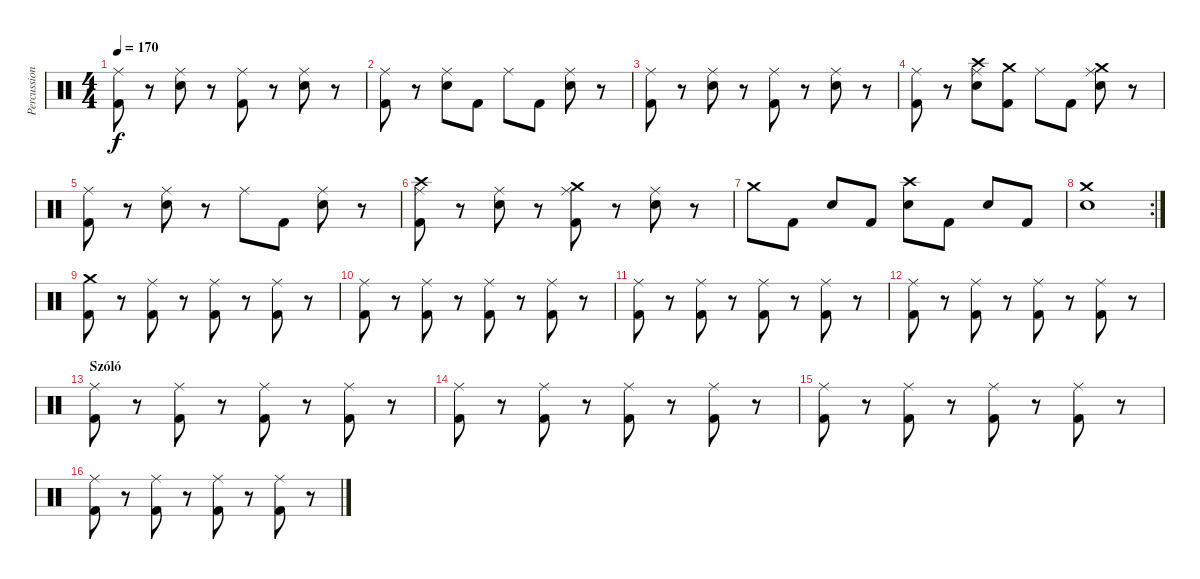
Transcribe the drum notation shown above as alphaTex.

\track ("Percussion" "Percussion") {instrument percussion}
\staff {score}
\articulation defaults
\ts (4 4)
\tempo 170
\clef neutral
\ks c
("Ride (middle)" "Kick (hit) 2").8{dy f} r.8 ("Ride (middle)" "Electric Snare (hit)").8 r.8 ("Ride (middle)" "Kick (hit) 2").8 r.8 ("Ride (middle)" "Electric Snare (hit)").8 r.8 |
("Ride (middle)" "Kick (hit) 2").8 r.8 ("Ride (middle)" "Electric Snare (hit)").8 "Kick (hit) 2".8 "Ride (middle)".8 "Kick (hit) 2".8 ("Ride (middle)" "Electric Snare (hit)").8 r.8 |
("Ride (middle)" "Kick (hit) 2").8 r.8 ("Ride (middle)" "Electric Snare (hit)").8 r.8 ("Ride (middle)" "Kick (hit) 2").8 r.8 ("Ride (middle)" "Electric Snare (hit)").8 r.8 |
("Ride (middle)" "Kick (hit) 2").8 r.8 ("Ride (middle)" "Crash high (hit)" "Electric Snare (hit)").8 ("Kick (hit) 2" "Crash medium (hit)").8 "Ride (middle)".8 "Kick (hit) 2".8 ("Ride (middle)" "Crash medium (hit)" "Electric Snare (hit)").8 r.8 |
("Ride (middle)" "Kick (hit) 2").8 r.8 ("Ride (middle)" "Electric Snare (hit)").8 r.8 "Ride (middle)".8 "Kick (hit) 2".8 ("Ride (middle)" "Electric Snare (hit)").8 r.8 |
("Ride (middle)" "Kick (hit) 2" "Crash high (hit)").8 r.8 ("Ride (middle)" "Electric Snare (hit)").8 r.8 ("Ride (middle)" "Kick (hit) 2" "Crash medium (hit)").8 r.8 ("Ride (middle)" "Electric Snare (hit)").8 r.8 |
"Crash medium (hit)".8 "Kick (hit) 2".8 "Electric Snare (hit)".8 "Kick (hit) 2".8 ("Crash high (hit)" "Electric Snare (hit)").8 "Kick (hit) 2".8 "Electric Snare (hit)".8 "Kick (hit) 2".8 |
\rc 2
("Crash medium (hit)" "Electric Snare (hit)").1 |
("Kick (hit) 2" "Crash medium (hit)").8 r.8 ("Ride (middle)" "Kick (hit) 2").8 r.8 ("Ride (middle)" "Kick (hit) 2").8 r.8 ("Ride (middle)" "Kick (hit) 2").8 r.8 |
("Ride (middle)" "Kick (hit) 2").8 r.8 ("Ride (middle)" "Kick (hit) 2").8 r.8 ("Ride (middle)" "Kick (hit) 2").8 r.8 ("Ride (middle)" "Kick (hit) 2").8 r.8 |
("Ride (middle)" "Kick (hit) 2").8 r.8 ("Ride (middle)" "Kick (hit) 2").8 r.8 ("Ride (middle)" "Kick (hit) 2").8 r.8 ("Ride (middle)" "Kick (hit) 2").8 r.8 |
("Ride (middle)" "Kick (hit) 2").8 r.8 ("Ride (middle)" "Kick (hit) 2").8 r.8 ("Ride (middle)" "Kick (hit) 2").8 r.8 ("Ride (middle)" "Kick (hit) 2").8 r.8 |
\section ("" "Szóló")
("Ride (middle)" "Kick (hit) 2").8 r.8 ("Ride (middle)" "Kick (hit) 2").8 r.8 ("Ride (middle)" "Kick (hit) 2").8 r.8 ("Ride (middle)" "Kick (hit) 2").8 r.8 |
("Ride (middle)" "Kick (hit) 2").8 r.8 ("Ride (middle)" "Kick (hit) 2").8 r.8 ("Ride (middle)" "Kick (hit) 2").8 r.8 ("Ride (middle)" "Kick (hit) 2").8 r.8 |
("Ride (middle)" "Kick (hit) 2").8 r.8 ("Ride (middle)" "Kick (hit) 2").8 r.8 ("Ride (middle)" "Kick (hit) 2").8 r.8 ("Ride (middle)" "Kick (hit) 2").8 r.8 |
("Ride (middle)" "Kick (hit) 2").8 r.8 ("Ride (middle)" "Kick (hit) 2").8 r.8 ("Ride (middle)" "Kick (hit) 2").8 r.8 ("Ride (middle)" "Kick (hit) 2").8 r.8
